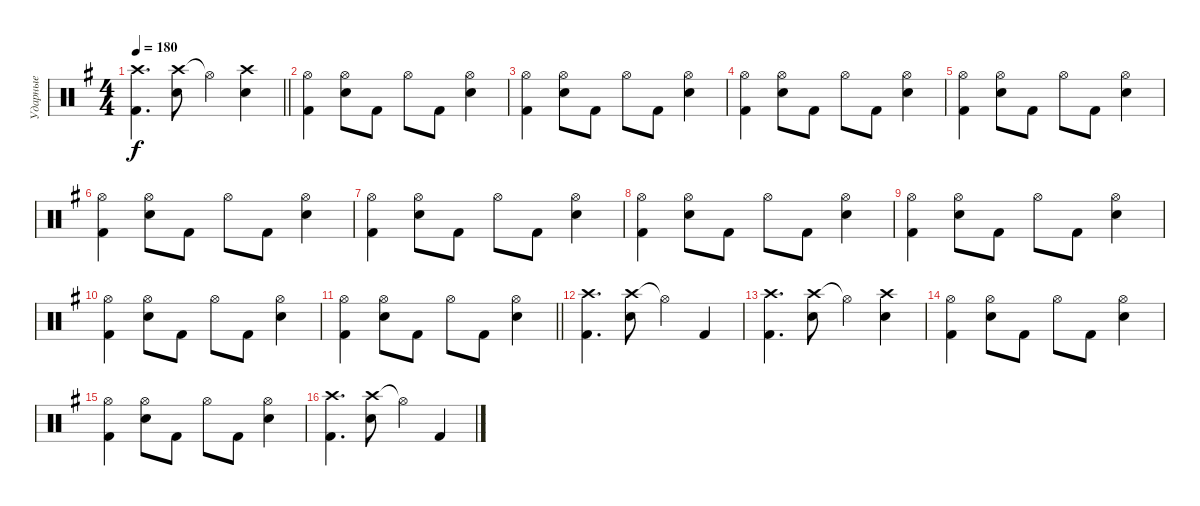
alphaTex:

\track ("Ударные" "Ударные") {instrument percussion}
\staff {score}
\articulation defaults
\ts (4 4)
\tempo 180
\clef neutral
\barLineRight lightlight
\ks g
("Crash high (hit)" "Kick (hit) 2").4{d dy f} ("Crash high (hit)" "Snare (hit) 2").8 "Hi-Hat (open)"{t}.4 ("Crash high (hit)" "Snare (hit) 2").4 |
("Hi-Hat (open)" "Kick (hit) 2").4 ("Hi-Hat (open)" "Snare (hit) 2").8 "Kick (hit) 2".8 "Hi-Hat (open)".8 "Kick (hit) 2".8 ("Hi-Hat (open)" "Snare (hit) 2").4 |
("Hi-Hat (open)" "Kick (hit) 2").4 ("Hi-Hat (open)" "Snare (hit) 2").8 "Kick (hit) 2".8 "Hi-Hat (open)".8 "Kick (hit) 2".8 ("Hi-Hat (open)" "Snare (hit) 2").4 |
("Hi-Hat (open)" "Kick (hit) 2").4 ("Hi-Hat (open)" "Snare (hit) 2").8 "Kick (hit) 2".8 "Hi-Hat (open)".8 "Kick (hit) 2".8 ("Hi-Hat (open)" "Snare (hit) 2").4 |
("Hi-Hat (open)" "Kick (hit) 2").4 ("Hi-Hat (open)" "Snare (hit) 2").8 "Kick (hit) 2".8 "Hi-Hat (open)".8 "Kick (hit) 2".8 ("Hi-Hat (open)" "Snare (hit) 2").4 |
("Hi-Hat (open)" "Kick (hit) 2").4 ("Hi-Hat (open)" "Snare (hit) 2").8 "Kick (hit) 2".8 "Hi-Hat (open)".8 "Kick (hit) 2".8 ("Hi-Hat (open)" "Snare (hit) 2").4 |
("Hi-Hat (open)" "Kick (hit) 2").4 ("Hi-Hat (open)" "Snare (hit) 2").8 "Kick (hit) 2".8 "Hi-Hat (open)".8 "Kick (hit) 2".8 ("Hi-Hat (open)" "Snare (hit) 2").4 |
("Hi-Hat (open)" "Kick (hit) 2").4 ("Hi-Hat (open)" "Snare (hit) 2").8 "Kick (hit) 2".8 "Hi-Hat (open)".8 "Kick (hit) 2".8 ("Hi-Hat (open)" "Snare (hit) 2").4 |
("Hi-Hat (open)" "Kick (hit) 2").4 ("Hi-Hat (open)" "Snare (hit) 2").8 "Kick (hit) 2".8 "Hi-Hat (open)".8 "Kick (hit) 2".8 ("Hi-Hat (open)" "Snare (hit) 2").4 |
("Hi-Hat (open)" "Kick (hit) 2").4 ("Hi-Hat (open)" "Snare (hit) 2").8 "Kick (hit) 2".8 "Hi-Hat (open)".8 "Kick (hit) 2".8 ("Hi-Hat (open)" "Snare (hit) 2").4 |
\barLineRight lightlight
("Hi-Hat (open)" "Kick (hit) 2").4 ("Hi-Hat (open)" "Snare (hit) 2").8 "Kick (hit) 2".8 "Hi-Hat (open)".8 "Kick (hit) 2".8 ("Hi-Hat (open)" "Snare (hit) 2").4 |
("Crash high (hit)" "Kick (hit) 2").4{d} ("Crash high (hit)" "Snare (hit) 2").8 "Hi-Hat (open)"{t}.4 "Kick (hit) 2".4 |
("Crash high (hit)" "Kick (hit) 2").4{d} ("Crash high (hit)" "Snare (hit) 2").8 "Hi-Hat (open)"{t}.4 ("Crash high (hit)" "Snare (hit) 2").4 |
("Hi-Hat (open)" "Kick (hit) 2").4 ("Hi-Hat (open)" "Snare (hit) 2").8 "Kick (hit) 2".8 "Hi-Hat (open)".8 "Kick (hit) 2".8 ("Hi-Hat (open)" "Snare (hit) 2").4 |
("Hi-Hat (open)" "Kick (hit) 2").4 ("Hi-Hat (open)" "Snare (hit) 2").8 "Kick (hit) 2".8 "Hi-Hat (open)".8 "Kick (hit) 2".8 ("Hi-Hat (open)" "Snare (hit) 2").4 |
("Crash high (hit)" "Kick (hit) 2").4{d} ("Crash high (hit)" "Snare (hit) 2").8 "Hi-Hat (open)"{t}.4 "Kick (hit) 2".4
